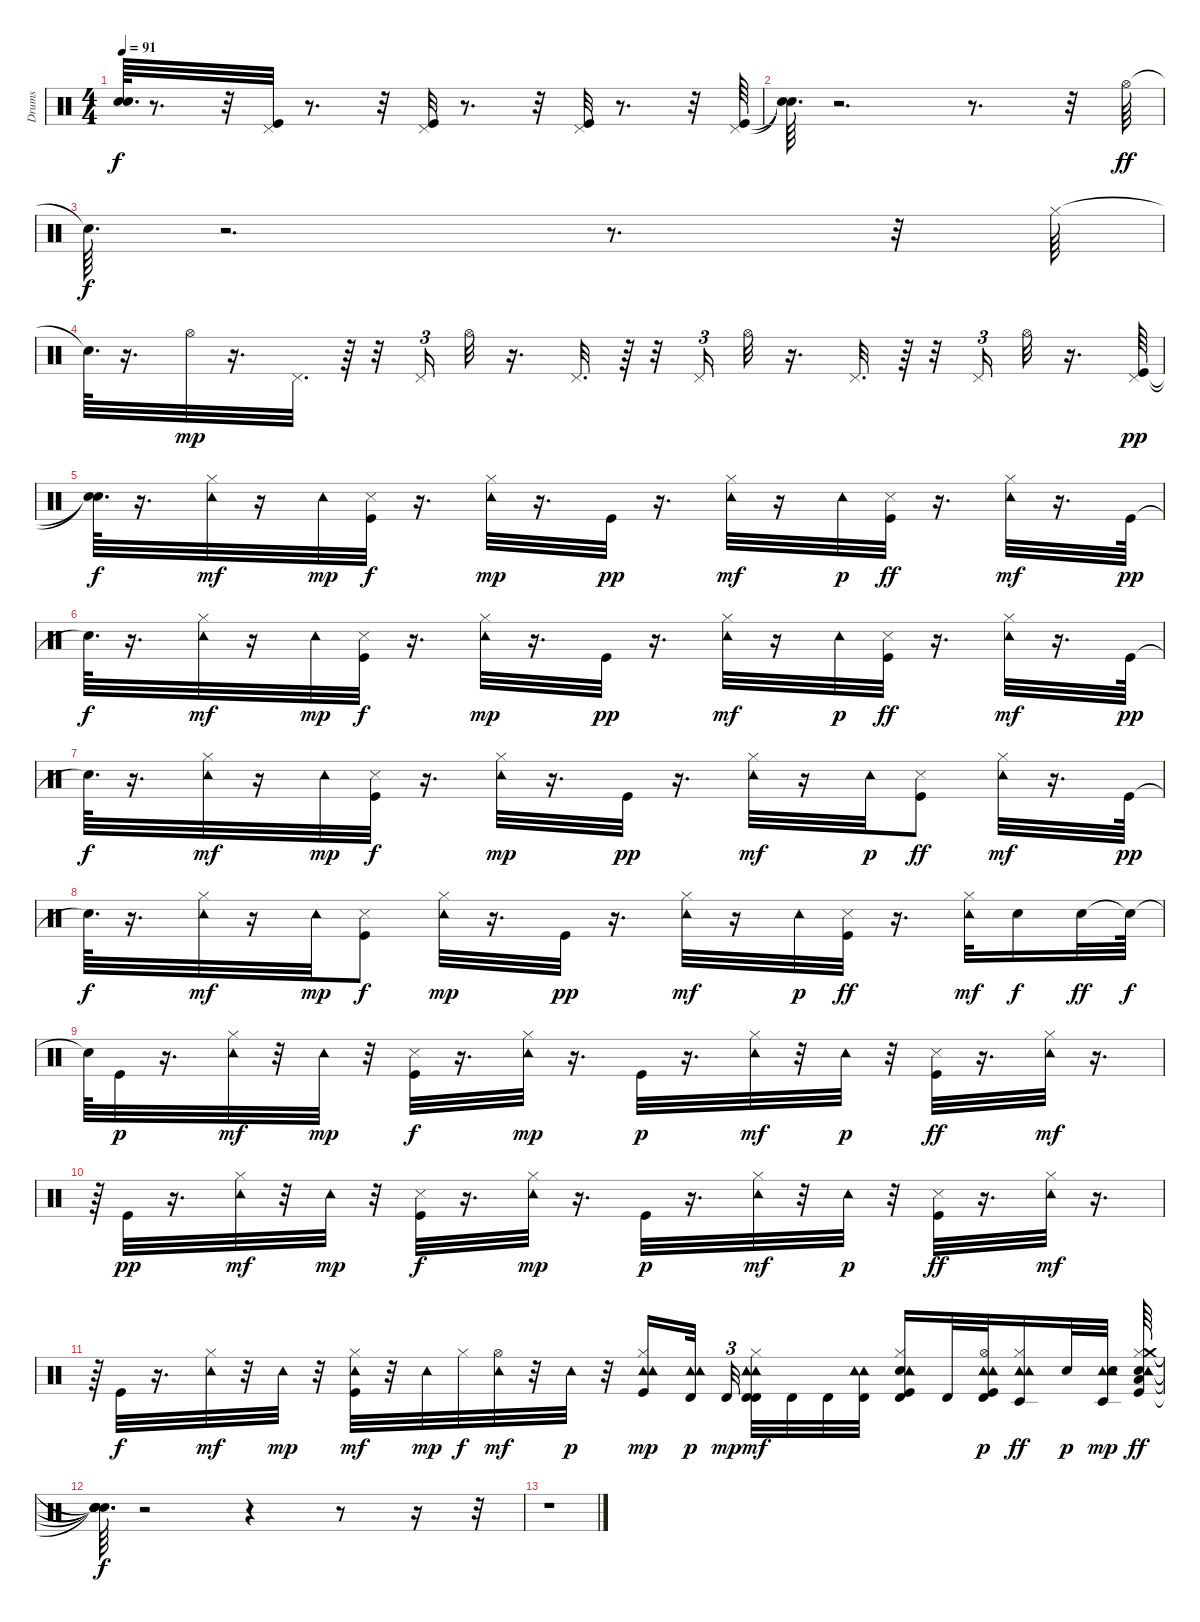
\track ("Drums" "Drums") {instrument percussion}
\staff {score}
\articulation defaults
\ts (4 4)
\tempo 91
\clef neutral
\ks c
("Snare (hit)"{t} "Snare (hit)"{t}).64{d dy f} r.8{d} r.32 ("Kick (hit)" "Pedal Hi-Hat (hit)").32 r.8{d} r.32 ("Kick (hit)" "Pedal Hi-Hat (hit)").32 r.8{d} r.32 ("Kick (hit)" "Pedal Hi-Hat (hit)").32 r.8{d} r.32 ("Kick (hit)" "Pedal Hi-Hat (hit)").64 |
("Snare (hit)"{t} "Snare (hit)"{t}).64{d} r.2{d} r.8{d} r.32 "Hi-Hat (open)".64{dy ff} |
"Snare (hit)"{t}.64{d dy f} r.2{d} r.8{d} r.32 "Hi-Hat (closed)".64 |
"Snare (hit)"{t}.64{d} r.16{d} "Hi-Hat (open)".32{dy mp} r.16{d} "Pedal Hi-Hat (hit)".32{d} r.64 r.32 "Pedal Hi-Hat (hit)".16{tu (3 2)} "Hi-Hat (open)".32 r.16{d} "Pedal Hi-Hat (hit)".32{d} r.64 r.32 "Pedal Hi-Hat (hit)".16{tu (3 2)} "Hi-Hat (open)".32 r.16{d} "Pedal Hi-Hat (hit)".32{d} r.64 r.32 "Pedal Hi-Hat (hit)".16{tu (3 2)} "Hi-Hat (open)".32 r.16{d} ("Kick (hit)" "Pedal Hi-Hat (hit)").64{dy pp} |
("Snare (hit)"{t} "Snare (hit)"{t}).64{d dy f} r.16{d} ("Tambourine (hit)" "Hi-Hat (closed)").32{dy mf} r.16 "Tambourine (hit)".32{dy mp} ("Snare (side stick) 3" "Kick (hit)").32{dy f} r.16{d} ("Tambourine (hit)" "Hi-Hat (closed)").32{dy mp} r.16{d} "Kick (hit)".32{dy pp} r.16{d} ("Tambourine (hit)" "Hi-Hat (closed)").32{dy mf} r.16 "Tambourine (hit)".32{dy p} ("Kick (hit)" "Snare (side stick) 3").32{dy ff} r.16{d} ("Tambourine (hit)" "Hi-Hat (closed)").32{dy mf} r.16{d} "Kick (hit)".64{dy pp} |
"Snare (hit)"{t}.64{d dy f} r.16{d} ("Tambourine (hit)" "Hi-Hat (closed)").32{dy mf} r.16 "Tambourine (hit)".32{dy mp} ("Kick (hit)" "Snare (side stick) 3").32{dy f} r.16{d} ("Tambourine (hit)" "Hi-Hat (closed)").32{dy mp} r.16{d} "Kick (hit)".32{dy pp} r.16{d} ("Tambourine (hit)" "Hi-Hat (closed)").32{dy mf} r.16 "Tambourine (hit)".32{dy p} ("Kick (hit)" "Snare (side stick) 3").32{dy ff} r.16{d} ("Tambourine (hit)" "Hi-Hat (closed)").32{dy mf} r.16{d} "Kick (hit)".64{dy pp} |
"Snare (hit)"{t}.64{d dy f} r.16{d} ("Hi-Hat (closed)" "Tambourine (hit)").32{dy mf} r.16 "Tambourine (hit)".32{dy mp} ("Snare (side stick) 3" "Kick (hit)").32{dy f} r.16{d} ("Tambourine (hit)" "Hi-Hat (closed)").32{dy mp} r.16{d} "Kick (hit)".32{dy pp} r.16{d} ("Tambourine (hit)" "Hi-Hat (closed)").32{dy mf} r.16 "Tambourine (hit)".32{dy p} ("Kick (hit)" "Snare (side stick) 3").8{dy ff} ("Tambourine (hit)" "Hi-Hat (closed)").32{dy mf} r.16{d} "Kick (hit)".64{dy pp} |
"Snare (hit)"{t}.64{d dy f} r.16{d} ("Tambourine (hit)" "Hi-Hat (closed)").32{dy mf} r.16 "Tambourine (hit)".32{dy mp} ("Kick (hit)" "Snare (side stick) 3").8{dy f} ("Tambourine (hit)" "Hi-Hat (closed)").32{dy mp} r.16{d} "Kick (hit)".32{dy pp} r.16{d} ("Tambourine (hit)" "Hi-Hat (closed)").32{dy mf} r.16 "Tambourine (hit)".32{dy p} ("Kick (hit)" "Snare (side stick) 3").32{dy ff} r.16{d} ("Tambourine (hit)" "Hi-Hat (closed)").32{dy mf} "Metronome (bell)".16{dy f} "Metronome (bell)".32{dy ff} "Snare (hit)"{t}.64{dy f} |
"Snare (hit)"{t}.64 "Kick (hit)".32{dy p} r.16{d} ("Tambourine (hit)" "Hi-Hat (closed)").32{dy mf} r.32 "Tambourine (hit)".32{dy mp} r.32 ("Snare (side stick) 3" "Kick (hit)").32{dy f} r.16{d} ("Tambourine (hit)" "Hi-Hat (closed)").32{dy mp} r.16{d} "Kick (hit)".32{dy p} r.16{d} ("Tambourine (hit)" "Hi-Hat (closed)").32{dy mf} r.32 "Tambourine (hit)".32{dy p} r.32 ("Kick (hit)" "Snare (side stick) 3").32{dy ff} r.16{d} ("Tambourine (hit)" "Hi-Hat (closed)").32{dy mf} r.16{d} |
r.64 "Kick (hit)".32{dy pp} r.16{d} ("Tambourine (hit)" "Hi-Hat (closed)").32{dy mf} r.32 "Tambourine (hit)".32{dy mp} r.32 ("Kick (hit)" "Snare (side stick) 3").32{dy f} r.16{d} ("Tambourine (hit)" "Hi-Hat (closed)").32{dy mp} r.16{d} "Kick (hit)".32{dy p} r.16{d} ("Tambourine (hit)" "Hi-Hat (closed)").32{dy mf} r.32 "Tambourine (hit)".32{dy p} r.32 ("Snare (side stick) 3" "Kick (hit)").32{dy ff} r.16{d} ("Tambourine (hit)" "Hi-Hat (closed)").32{dy mf} r.16{d} |
r.64 "Kick (hit)".32{dy f} r.16{d} ("Tambourine (hit)" "Hi-Hat (closed)").32{dy mf} r.32 "Tambourine (hit)".32{dy mp} r.32 ("Kick (hit)" "Tambourine (hit)" "Hi-Hat (closed)").32{dy mf} r.32 "Tambourine (hit)".32{dy mp} "Hi-Hat (closed)".32{dy f} ("Tambourine (hit)" "Hi-Hat (open)").32{dy mf} r.32 "Tambourine (hit)".32{dy p} r.32 ("Tambourine (hit)" "Tambourine (hit)" "Hi-Hat (closed)" "Kick (hit)").16{dy mp} ("Timbale high (hit)" "Tambourine (hit)" "Tambourine (hit)").32{dy p} "Timbale high (hit)".32{tu (3 2) dy mp} ("Timbale high (hit)" "Tambourine (hit)" "Hi-Hat (closed)" "Tambourine (hit)" "Timbale high (hit)").32{dy mf} "Timbale high (hit)".32 "Timbale high (hit)".32 ("Tambourine (hit)" "Tambourine (hit)" "Timbale high (hit)").32 ("Metronome (bell)" "Tambourine (hit)" "Tambourine (hit)" "Hi-Hat (closed)" "Kick (hit)" "Timbale high (hit)").16 "Timbale high (hit)".32 ("Tambourine (hit)" "Kick (hit)" "Hi-Hat (open)" "Timbale high (hit)" "Tambourine (hit)").32{dy p} ("Tambourine (hit)" "Tambourine (hit)" "Hi-Hat (closed)" "Timbale low (hit)").16{dy ff} "Metronome (bell)".32{dy p} ("Tambourine (hit)" "Tambourine (hit)" "Metronome (bell)" "Timbale low (hit)").32{dy mp} ("Metronome (bell)" "Tambourine (hit)" "Hi-Hat (closed)" "Crash medium (hit)" "Kick (hit)" "Low Tom (hit)").64{dy ff} |
("Snare (hit)"{t} "Snare (hit)"{t} "Snare (hit)"{t} "Snare (hit)"{t} "Snare (hit)"{t} "Snare (hit)"{t}).64{d dy f} r.2 r.4 r.8 r.16 r.32 |
r.1
